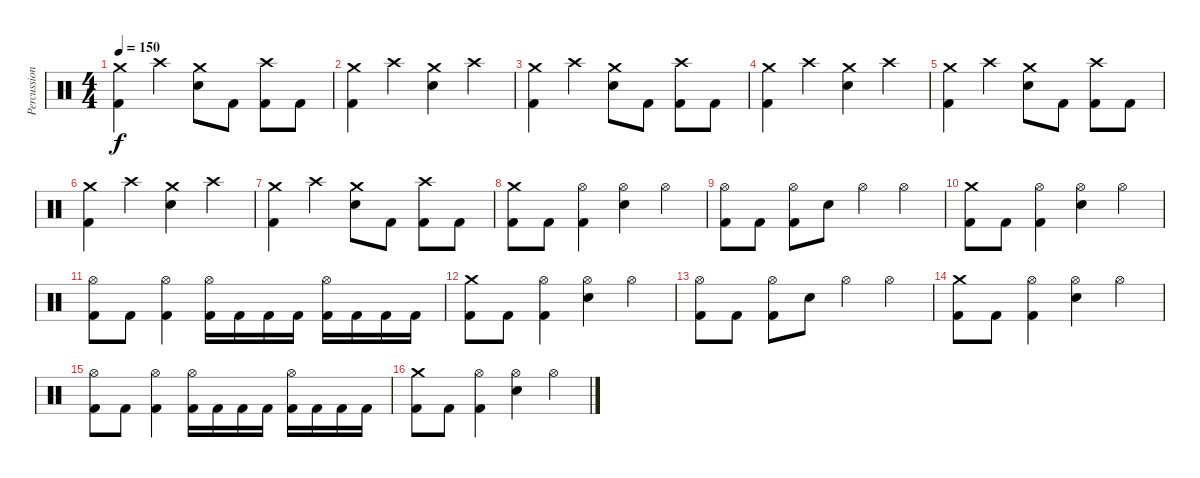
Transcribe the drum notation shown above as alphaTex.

\track ("Percussion" "Percussion") {instrument percussion}
\staff {score}
\articulation defaults
\ts (4 4)
\tempo 150
\clef neutral
\ks c
("Crash medium (hit)" "Kick (hit) 2").4{dy f} "Crash high (hit)".4 ("Crash medium (hit)" "Electric Snare (hit)").8 "Kick (hit) 2".8 ("Crash high (hit)" "Kick (hit) 2").8 "Kick (hit) 2".8 |
("Crash medium (hit)" "Kick (hit) 2").4 "Crash high (hit)".4 ("Crash medium (hit)" "Electric Snare (hit)").4 "Crash high (hit)".4 |
("Crash medium (hit)" "Kick (hit) 2").4 "Crash high (hit)".4 ("Crash medium (hit)" "Electric Snare (hit)").8 "Kick (hit) 2".8 ("Crash high (hit)" "Kick (hit) 2").8 "Kick (hit) 2".8 |
("Crash medium (hit)" "Kick (hit) 2").4 "Crash high (hit)".4 ("Crash medium (hit)" "Electric Snare (hit)").4 "Crash high (hit)".4 |
("Crash medium (hit)" "Kick (hit) 2").4 "Crash high (hit)".4 ("Crash medium (hit)" "Electric Snare (hit)").8 "Kick (hit) 2".8 ("Crash high (hit)" "Kick (hit) 2").8 "Kick (hit) 2".8 |
("Crash medium (hit)" "Kick (hit) 2").4 "Crash high (hit)".4 ("Crash medium (hit)" "Electric Snare (hit)").4 "Crash high (hit)".4 |
("Crash medium (hit)" "Kick (hit) 2").4 "Crash high (hit)".4 ("Crash medium (hit)" "Electric Snare (hit)").8 "Kick (hit) 2".8 ("Crash high (hit)" "Kick (hit) 2").8 "Kick (hit) 2".8 |
("Crash medium (hit)" "Kick (hit) 2").8 "Kick (hit) 2".8 ("Hi-Hat (open)" "Kick (hit) 2").4 ("Hi-Hat (open)" "Electric Snare (hit)").4 "Hi-Hat (open)".4 |
("Hi-Hat (open)" "Kick (hit) 2").8 "Kick (hit) 2".8 ("Hi-Hat (open)" "Kick (hit) 2").8 "Electric Snare (hit)".8 "Hi-Hat (open)".4 "Hi-Hat (open)".4 |
("Crash medium (hit)" "Kick (hit) 2").8 "Kick (hit) 2".8 ("Hi-Hat (open)" "Kick (hit) 2").4 ("Hi-Hat (open)" "Electric Snare (hit)").4 "Hi-Hat (open)".4 |
("Hi-Hat (open)" "Kick (hit) 2").8 "Kick (hit) 2".8 ("Hi-Hat (open)" "Kick (hit) 2").4 ("Hi-Hat (open)" "Kick (hit) 2").16 "Kick (hit) 2".16 "Kick (hit) 2".16 "Kick (hit) 2".16 ("Hi-Hat (open)" "Kick (hit) 2").16 "Kick (hit) 2".16 "Kick (hit) 2".16 "Kick (hit) 2".16 |
("Crash medium (hit)" "Kick (hit) 2").8 "Kick (hit) 2".8 ("Hi-Hat (open)" "Kick (hit) 2").4 ("Hi-Hat (open)" "Electric Snare (hit)").4 "Hi-Hat (open)".4 |
("Hi-Hat (open)" "Kick (hit) 2").8 "Kick (hit) 2".8 ("Hi-Hat (open)" "Kick (hit) 2").8 "Electric Snare (hit)".8 "Hi-Hat (open)".4 "Hi-Hat (open)".4 |
("Crash medium (hit)" "Kick (hit) 2").8 "Kick (hit) 2".8 ("Hi-Hat (open)" "Kick (hit) 2").4 ("Hi-Hat (open)" "Electric Snare (hit)").4 "Hi-Hat (open)".4 |
("Hi-Hat (open)" "Kick (hit) 2").8 "Kick (hit) 2".8 ("Hi-Hat (open)" "Kick (hit) 2").4 ("Hi-Hat (open)" "Kick (hit) 2").16 "Kick (hit) 2".16 "Kick (hit) 2".16 "Kick (hit) 2".16 ("Hi-Hat (open)" "Kick (hit) 2").16 "Kick (hit) 2".16 "Kick (hit) 2".16 "Kick (hit) 2".16 |
("Crash medium (hit)" "Kick (hit) 2").8 "Kick (hit) 2".8 ("Hi-Hat (open)" "Kick (hit) 2").4 ("Hi-Hat (open)" "Electric Snare (hit)").4 "Hi-Hat (open)".4
